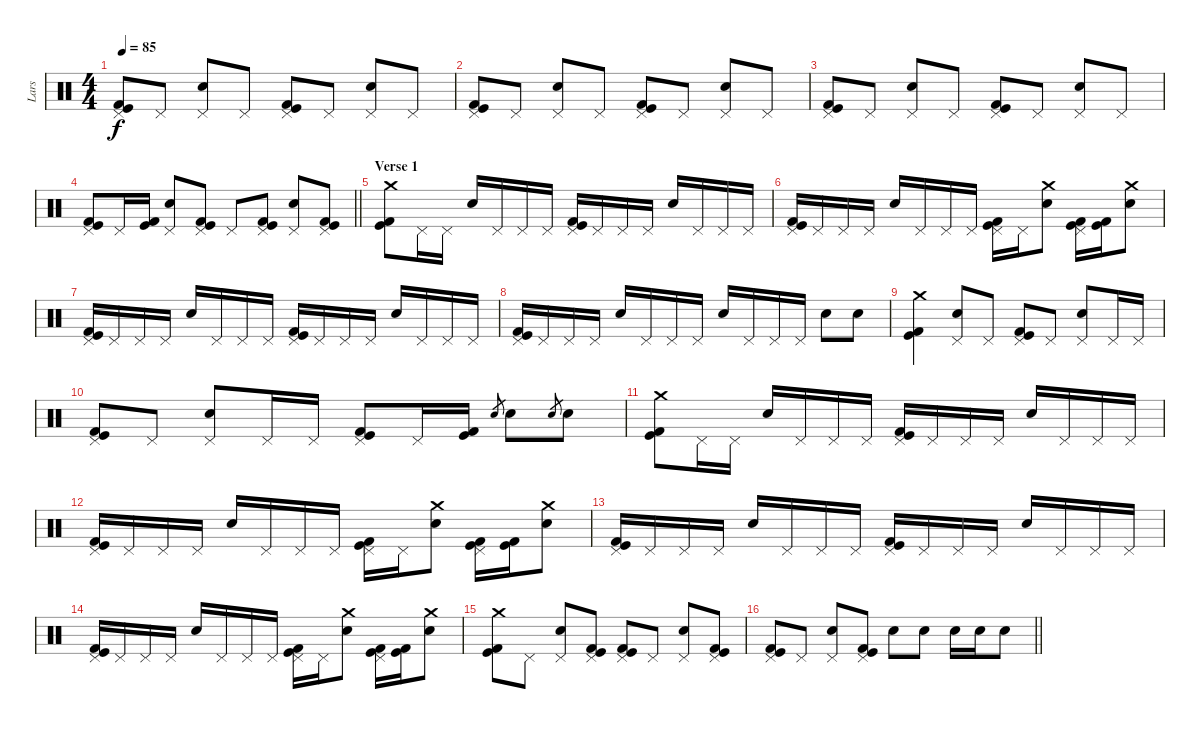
\track ("Lars" "Lars") {instrument percussion}
\staff {score}
\articulation defaults
\ts (4 4)
\tempo 85
\clef neutral
\ks c
("Pedal Hi-Hat (hit)" "Kick (hit)" "Kick (hit) 2").8{dy f} "Pedal Hi-Hat (hit)".8 ("Pedal Hi-Hat (hit)" "Electric Snare (hit)").8 "Pedal Hi-Hat (hit)".8 ("Pedal Hi-Hat (hit)" "Kick (hit)" "Kick (hit) 2").8 "Pedal Hi-Hat (hit)".8 ("Pedal Hi-Hat (hit)" "Electric Snare (hit)").8 "Pedal Hi-Hat (hit)".8 |
("Pedal Hi-Hat (hit)" "Kick (hit)" "Kick (hit) 2").8 "Pedal Hi-Hat (hit)".8 ("Pedal Hi-Hat (hit)" "Electric Snare (hit)").8 "Pedal Hi-Hat (hit)".8 ("Pedal Hi-Hat (hit)" "Kick (hit)" "Kick (hit) 2").8 "Pedal Hi-Hat (hit)".8 ("Pedal Hi-Hat (hit)" "Electric Snare (hit)").8 "Pedal Hi-Hat (hit)".8 |
("Pedal Hi-Hat (hit)" "Kick (hit)" "Kick (hit) 2").8 "Pedal Hi-Hat (hit)".8 ("Pedal Hi-Hat (hit)" "Electric Snare (hit)").8 "Pedal Hi-Hat (hit)".8 ("Pedal Hi-Hat (hit)" "Kick (hit)" "Kick (hit) 2").8 "Pedal Hi-Hat (hit)".8 ("Pedal Hi-Hat (hit)" "Electric Snare (hit)").8 "Pedal Hi-Hat (hit)".8 |
\barLineRight lightlight
("Pedal Hi-Hat (hit)" "Kick (hit)" "Kick (hit) 2").8 "Pedal Hi-Hat (hit)".16 ("Kick (hit)" "Kick (hit) 2").16 ("Pedal Hi-Hat (hit)" "Electric Snare (hit)").8 ("Pedal Hi-Hat (hit)" "Kick (hit)" "Kick (hit) 2").8 "Pedal Hi-Hat (hit)".8 ("Pedal Hi-Hat (hit)" "Kick (hit)" "Kick (hit) 2").8 ("Pedal Hi-Hat (hit)" "Electric Snare (hit)").8 ("Pedal Hi-Hat (hit)" "Kick (hit)" "Kick (hit) 2").8 |
\section ("" "Verse 1")
("Crash medium (hit)" "Kick (hit)" "Kick (hit) 2").8 "Pedal Hi-Hat (hit)".16 "Pedal Hi-Hat (hit)".16 "Electric Snare (hit)".16 "Pedal Hi-Hat (hit)".16 "Pedal Hi-Hat (hit)".16 "Pedal Hi-Hat (hit)".16 ("Pedal Hi-Hat (hit)" "Kick (hit)" "Kick (hit) 2").16 "Pedal Hi-Hat (hit)".16 "Pedal Hi-Hat (hit)".16 "Pedal Hi-Hat (hit)".16 "Electric Snare (hit)".16 "Pedal Hi-Hat (hit)".16 "Pedal Hi-Hat (hit)".16 "Pedal Hi-Hat (hit)".16 |
("Pedal Hi-Hat (hit)" "Kick (hit)" "Kick (hit) 2").16 "Pedal Hi-Hat (hit)".16 "Pedal Hi-Hat (hit)".16 "Pedal Hi-Hat (hit)".16 "Electric Snare (hit)".16 "Pedal Hi-Hat (hit)".16 "Pedal Hi-Hat (hit)".16 "Pedal Hi-Hat (hit)".16 ("Pedal Hi-Hat (hit)" "Kick (hit)" "Kick (hit) 2").16 "Pedal Hi-Hat (hit)".16 ("Crash medium (hit)" "Electric Snare (hit)").8 ("Pedal Hi-Hat (hit)" "Kick (hit)" "Kick (hit) 2").16 ("Kick (hit)" "Kick (hit) 2").16 ("Crash medium (hit)" "Electric Snare (hit)").8 |
("Pedal Hi-Hat (hit)" "Kick (hit)" "Kick (hit) 2").16 "Pedal Hi-Hat (hit)".16 "Pedal Hi-Hat (hit)".16 "Pedal Hi-Hat (hit)".16 "Electric Snare (hit)".16 "Pedal Hi-Hat (hit)".16 "Pedal Hi-Hat (hit)".16 "Pedal Hi-Hat (hit)".16 ("Pedal Hi-Hat (hit)" "Kick (hit)" "Kick (hit) 2").16 "Pedal Hi-Hat (hit)".16 "Pedal Hi-Hat (hit)".16 "Pedal Hi-Hat (hit)".16 "Electric Snare (hit)".16 "Pedal Hi-Hat (hit)".16 "Pedal Hi-Hat (hit)".16 "Pedal Hi-Hat (hit)".16 |
("Pedal Hi-Hat (hit)" "Kick (hit)" "Kick (hit) 2").16 "Pedal Hi-Hat (hit)".16 "Pedal Hi-Hat (hit)".16 "Pedal Hi-Hat (hit)".16 "Electric Snare (hit)".16 "Pedal Hi-Hat (hit)".16 "Pedal Hi-Hat (hit)".16 "Pedal Hi-Hat (hit)".16 "Electric Snare (hit)".16 "Pedal Hi-Hat (hit)".16 "Pedal Hi-Hat (hit)".16 "Pedal Hi-Hat (hit)".16 "Electric Snare (hit)".8 "Electric Snare (hit)".8 |
("Crash medium (hit)" "Kick (hit)" "Kick (hit) 2").4 ("Pedal Hi-Hat (hit)" "Electric Snare (hit)").8 "Pedal Hi-Hat (hit)".8 ("Pedal Hi-Hat (hit)" "Kick (hit)" "Kick (hit) 2").8 "Pedal Hi-Hat (hit)".8 ("Pedal Hi-Hat (hit)" "Electric Snare (hit)").8 "Pedal Hi-Hat (hit)".16 "Pedal Hi-Hat (hit)".16 |
("Pedal Hi-Hat (hit)" "Kick (hit)" "Kick (hit) 2").8 "Pedal Hi-Hat (hit)".8 ("Pedal Hi-Hat (hit)" "Electric Snare (hit)").8 "Pedal Hi-Hat (hit)".16 "Pedal Hi-Hat (hit)".16 ("Pedal Hi-Hat (hit)" "Kick (hit)" "Kick (hit) 2").8 "Pedal Hi-Hat (hit)".16 ("Kick (hit)" "Kick (hit) 2").16 "Electric Snare (hit)".8{gr} "Electric Snare (hit)".8 "Electric Snare (hit)".8{gr} "Electric Snare (hit)".8 |
("Crash medium (hit)" "Kick (hit)" "Kick (hit) 2").8 "Pedal Hi-Hat (hit)".16 "Pedal Hi-Hat (hit)".16 "Electric Snare (hit)".16 "Pedal Hi-Hat (hit)".16 "Pedal Hi-Hat (hit)".16 "Pedal Hi-Hat (hit)".16 ("Pedal Hi-Hat (hit)" "Kick (hit)" "Kick (hit) 2").16 "Pedal Hi-Hat (hit)".16 "Pedal Hi-Hat (hit)".16 "Pedal Hi-Hat (hit)".16 "Electric Snare (hit)".16 "Pedal Hi-Hat (hit)".16 "Pedal Hi-Hat (hit)".16 "Pedal Hi-Hat (hit)".16 |
("Pedal Hi-Hat (hit)" "Kick (hit)" "Kick (hit) 2").16 "Pedal Hi-Hat (hit)".16 "Pedal Hi-Hat (hit)".16 "Pedal Hi-Hat (hit)".16 "Electric Snare (hit)".16 "Pedal Hi-Hat (hit)".16 "Pedal Hi-Hat (hit)".16 "Pedal Hi-Hat (hit)".16 ("Pedal Hi-Hat (hit)" "Kick (hit)" "Kick (hit) 2").16 "Pedal Hi-Hat (hit)".16 ("Crash medium (hit)" "Electric Snare (hit)").8 ("Pedal Hi-Hat (hit)" "Kick (hit)" "Kick (hit) 2").16 ("Kick (hit)" "Kick (hit) 2").16 ("Crash medium (hit)" "Electric Snare (hit)").8 |
("Pedal Hi-Hat (hit)" "Kick (hit)" "Kick (hit) 2").16 "Pedal Hi-Hat (hit)".16 "Pedal Hi-Hat (hit)".16 "Pedal Hi-Hat (hit)".16 "Electric Snare (hit)".16 "Pedal Hi-Hat (hit)".16 "Pedal Hi-Hat (hit)".16 "Pedal Hi-Hat (hit)".16 ("Pedal Hi-Hat (hit)" "Kick (hit)" "Kick (hit) 2").16 "Pedal Hi-Hat (hit)".16 "Pedal Hi-Hat (hit)".16 "Pedal Hi-Hat (hit)".16 "Electric Snare (hit)".16 "Pedal Hi-Hat (hit)".16 "Pedal Hi-Hat (hit)".16 "Pedal Hi-Hat (hit)".16 |
("Pedal Hi-Hat (hit)" "Kick (hit)" "Kick (hit) 2").16 "Pedal Hi-Hat (hit)".16 "Pedal Hi-Hat (hit)".16 "Pedal Hi-Hat (hit)".16 "Electric Snare (hit)".16 "Pedal Hi-Hat (hit)".16 "Pedal Hi-Hat (hit)".16 "Pedal Hi-Hat (hit)".16 ("Pedal Hi-Hat (hit)" "Kick (hit)" "Kick (hit) 2").16 "Pedal Hi-Hat (hit)".16 ("Crash medium (hit)" "Electric Snare (hit)").8 ("Pedal Hi-Hat (hit)" "Kick (hit)" "Kick (hit) 2").16 ("Kick (hit)" "Kick (hit) 2").16 ("Crash medium (hit)" "Electric Snare (hit)").8 |
("Crash medium (hit)" "Kick (hit)" "Kick (hit) 2").8 "Pedal Hi-Hat (hit)".8 ("Pedal Hi-Hat (hit)" "Electric Snare (hit)").8 ("Pedal Hi-Hat (hit)" "Kick (hit)" "Kick (hit) 2").8 ("Pedal Hi-Hat (hit)" "Kick (hit)" "Kick (hit) 2").8 "Pedal Hi-Hat (hit)".8 ("Pedal Hi-Hat (hit)" "Electric Snare (hit)").8 ("Pedal Hi-Hat (hit)" "Kick (hit)" "Kick (hit) 2").8 |
\barLineRight lightlight
("Pedal Hi-Hat (hit)" "Kick (hit)" "Kick (hit) 2").8 "Pedal Hi-Hat (hit)".8 ("Pedal Hi-Hat (hit)" "Electric Snare (hit)").8 ("Pedal Hi-Hat (hit)" "Kick (hit)" "Kick (hit) 2").8 "Electric Snare (hit)".8 "Electric Snare (hit)".8 "Electric Snare (hit)".16 "Electric Snare (hit)".16 "Electric Snare (hit)".8
